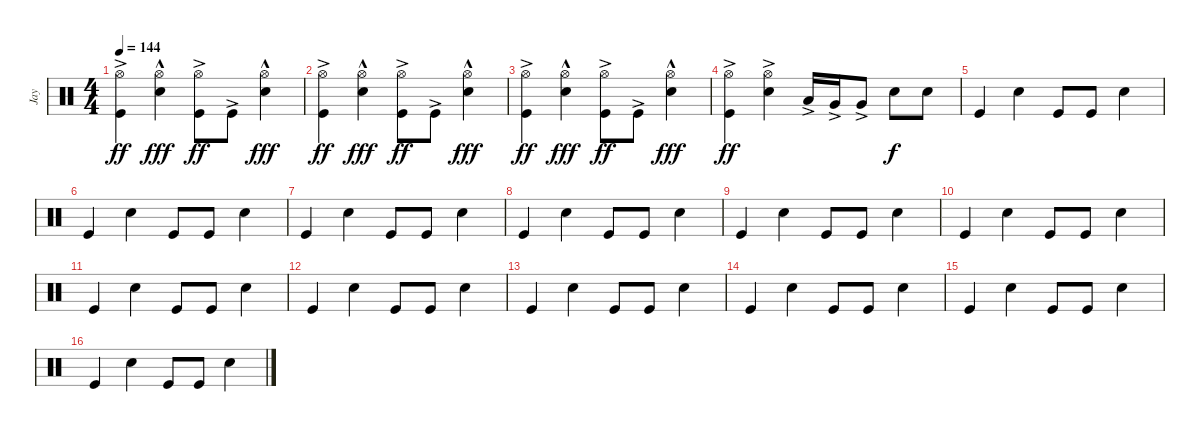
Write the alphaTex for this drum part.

\track ("Jay" "Jay") {instrument percussion}
\staff {score}
\articulation defaults
\ts (4 4)
\tempo 144
\clef neutral
\ks c
("Hi-Hat (open)" "Kick (hit)"{ac}).4{dy ff} ("Hi-Hat (open)" "Electric Snare (hit)"{hac}).4{dy fff} ("Hi-Hat (open)" "Kick (hit)"{ac}).8{dy ff} "Kick (hit)"{ac}.8 ("Hi-Hat (open)" "Electric Snare (hit)"{hac}).4{dy fff} |
("Hi-Hat (open)" "Kick (hit)"{ac}).4{dy ff} ("Hi-Hat (open)" "Electric Snare (hit)"{hac}).4{dy fff} ("Hi-Hat (open)" "Kick (hit)"{ac}).8{dy ff} "Kick (hit)"{ac}.8 ("Hi-Hat (open)" "Electric Snare (hit)"{hac}).4{dy fff} |
("Hi-Hat (open)" "Kick (hit)"{ac}).4{dy ff} ("Hi-Hat (open)" "Electric Snare (hit)"{hac}).4{dy fff} ("Hi-Hat (open)" "Kick (hit)"{ac}).8{dy ff} "Kick (hit)"{ac}.8 ("Hi-Hat (open)" "Electric Snare (hit)"{hac}).4{dy fff} |
("Hi-Hat (open)" "Kick (hit)"{ac}).4{dy ff} ("Hi-Hat (open)" "Electric Snare (hit)"{ac}).4 "Low Tom (hit)"{ac}.16 "Very Low Tom (hit)"{ac}.16 "Very Low Tom (hit)"{ac}.8 "Electric Snare (hit)".8{dy f} "Electric Snare (hit)".8 |
"Kick (hit)".4 "Electric Snare (hit)".4 "Kick (hit)".8 "Kick (hit)".8 "Electric Snare (hit)".4 |
"Kick (hit)".4 "Electric Snare (hit)".4 "Kick (hit)".8 "Kick (hit)".8 "Electric Snare (hit)".4 |
"Kick (hit)".4 "Electric Snare (hit)".4 "Kick (hit)".8 "Kick (hit)".8 "Electric Snare (hit)".4 |
"Kick (hit)".4 "Electric Snare (hit)".4 "Kick (hit)".8 "Kick (hit)".8 "Electric Snare (hit)".4 |
"Kick (hit)".4 "Electric Snare (hit)".4 "Kick (hit)".8 "Kick (hit)".8 "Electric Snare (hit)".4 |
"Kick (hit)".4 "Electric Snare (hit)".4 "Kick (hit)".8 "Kick (hit)".8 "Electric Snare (hit)".4 |
"Kick (hit)".4 "Electric Snare (hit)".4 "Kick (hit)".8 "Kick (hit)".8 "Electric Snare (hit)".4 |
"Kick (hit)".4 "Electric Snare (hit)".4 "Kick (hit)".8 "Kick (hit)".8 "Electric Snare (hit)".4 |
"Kick (hit)".4 "Electric Snare (hit)".4 "Kick (hit)".8 "Kick (hit)".8 "Electric Snare (hit)".4 |
"Kick (hit)".4 "Electric Snare (hit)".4 "Kick (hit)".8 "Kick (hit)".8 "Electric Snare (hit)".4 |
"Kick (hit)".4 "Electric Snare (hit)".4 "Kick (hit)".8 "Kick (hit)".8 "Electric Snare (hit)".4 |
"Kick (hit)".4 "Electric Snare (hit)".4 "Kick (hit)".8 "Kick (hit)".8 "Electric Snare (hit)".4
